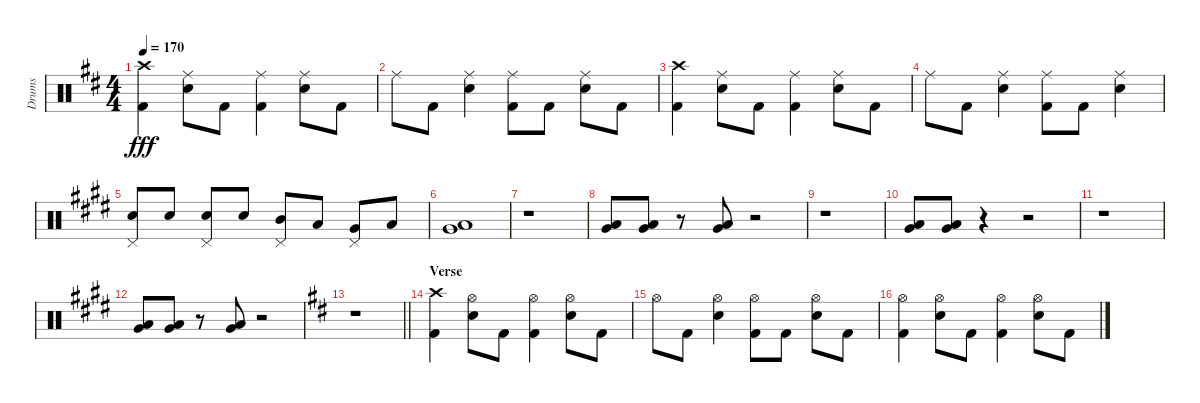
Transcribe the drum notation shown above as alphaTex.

\track ("Drums" "Drums") {instrument percussion}
\staff {score}
\articulation defaults
\ts (4 4)
\tempo 170
\clef neutral
\ks bminor
("Crash high (hit)" "Kick (hit) 2").4{dy fff} ("Ride (middle)" "Snare (hit) 2").8 "Kick (hit) 2".8 ("Ride (middle)" "Kick (hit) 2").4 ("Ride (middle)" "Snare (hit) 2").8 "Kick (hit) 2".8 |
"Ride (middle)".8 "Kick (hit) 2".8 ("Ride (middle)" "Snare (hit) 2").4 ("Ride (middle)" "Kick (hit) 2").8 "Kick (hit) 2".8 ("Ride (middle)" "Snare (hit) 2").8 "Kick (hit) 2".8 |
("Crash high (hit)" "Kick (hit) 2").4 ("Ride (middle)" "Snare (hit) 2").8 "Kick (hit) 2".8 ("Ride (middle)" "Kick (hit) 2").4 ("Ride (middle)" "Snare (hit) 2").8 "Kick (hit) 2".8 |
"Ride (middle)".8 "Kick (hit) 2".8 ("Ride (middle)" "Snare (hit) 2").4 ("Ride (middle)" "Kick (hit) 2").8 "Kick (hit) 2".8 ("Ride (middle)" "Snare (hit) 2").4 |
\ks c#minor
("Pedal Hi-Hat (hit)" "Snare (hit) 2").8 "Snare (hit) 2".8 ("Pedal Hi-Hat (hit)" "Snare (hit) 2").8 "Snare (hit) 2".8 ("Pedal Hi-Hat (hit)" "Mid Tom (hit)").8 "Low Tom (hit)".8 ("Pedal Hi-Hat (hit)" "Very Low Tom (hit)").8 "Low Floor Tom (hit)".8 |
("Very Low Tom (hit)" "Low Floor Tom (hit)").1 |
r.1 |
("Very Low Tom (hit)" "Low Floor Tom (hit)").8 ("Very Low Tom (hit)" "Low Floor Tom (hit)").8 r.8 ("Very Low Tom (hit)" "Low Floor Tom (hit)").8 r.2 |
r.1 |
("Very Low Tom (hit)" "Low Floor Tom (hit)").8 ("Very Low Tom (hit)" "Low Floor Tom (hit)").8 r.4 r.2 |
r.1 |
("Very Low Tom (hit)" "Low Floor Tom (hit)").8 ("Very Low Tom (hit)" "Low Floor Tom (hit)").8 r.8 ("Very Low Tom (hit)" "Low Floor Tom (hit)").8 r.2 |
\barLineRight lightlight
\ks bminor
r.1 |
\section ("" "Verse")
("Crash high (hit)" "Kick (hit) 2").4 ("Hi-Hat (open)" "Snare (hit) 2").8 "Kick (hit) 2".8 ("Hi-Hat (open)" "Kick (hit) 2").4 ("Hi-Hat (open)" "Snare (hit) 2").8 "Kick (hit) 2".8 |
"Hi-Hat (open)".8 "Kick (hit) 2".8 ("Hi-Hat (open)" "Snare (hit) 2").4 ("Hi-Hat (open)" "Kick (hit) 2").8 "Kick (hit) 2".8 ("Hi-Hat (open)" "Snare (hit) 2").8 "Kick (hit) 2".8 |
("Hi-Hat (open)" "Kick (hit) 2").4 ("Hi-Hat (open)" "Snare (hit) 2").8 "Kick (hit) 2".8 ("Hi-Hat (open)" "Kick (hit) 2").4 ("Hi-Hat (open)" "Snare (hit) 2").8 "Kick (hit) 2".8
